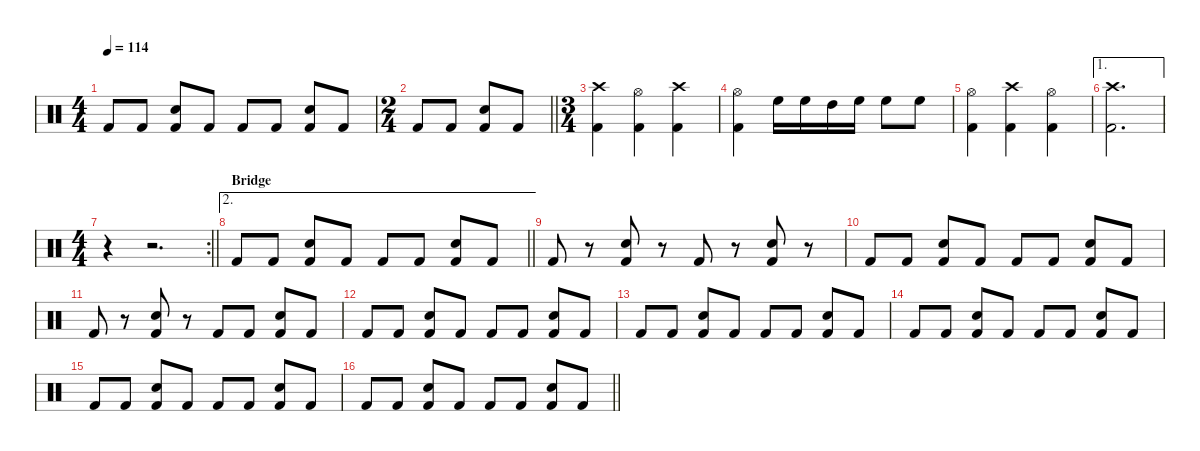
\defaultSystemsLayout 4
\hideDynamics
\bracketExtendMode nobrackets
\singleTrackTrackNamePolicy hidden
\multiTrackTrackNamePolicy hidden
\firstSystemTrackNameMode fullname
\firstSystemTrackNameOrientation horizontal
\otherSystemsTrackNameOrientation horizontal
\track ("Percussion-bu" "drm.") {mute instrument percussion}
\staff {score}
\articulation defaults
\ts (4 4)
\tempo 114
\clef neutral
\ks c "Kick (hit) 2".8{dy fff beam Up} "Kick (hit) 2".8{beam Up}
("Snare (hit) 2" "Kick (hit) 2").8{dy mf beam Up} "Kick (hit) 2".8{dy fff beam Up} "Kick (hit) 2".8{beam Up} "Kick (hit) 2".8{beam Up} ("Snare (hit) 2" "Kick (hit) 2").8{dy mf beam Up} "Kick (hit) 2".8{dy fff beam Up} |
\ts (2 4)
\beaming (8 2 2)
\barLineRight lightlight "Kick (hit) 2".8{beam Up} "Kick (hit) 2".8{beam Up}
("Snare (hit) 2" "Kick (hit) 2").8{dy mf beam Up} "Kick (hit) 2".8{dy fff beam Up} |
\ts (3 4)
\beaming (8 2 2 2)
("Crash high (hit)" "Kick (hit) 2").4{dy f beam Down} ("Hi-Hat (open)" "Kick (hit) 2").4{beam Down} ("Crash high (hit)" "Kick (hit) 2").4{beam Down} |
("Hi-Hat (open)" "Kick (hit) 2").4{beam Down} "High Floor Tom (hit)".16{dy mf beam Down} "High Floor Tom (hit)".16{beam Down} "High Tom (hit)".16{beam Down} "High Floor Tom (hit)".16{beam Down} "High Floor Tom (hit)".8{beam Down} "High Floor Tom (hit)".8{beam Down} |
("Hi-Hat (open)" "Kick (hit) 2").4{dy f beam Down} ("Crash high (hit)" "Kick (hit) 2").4{beam Down} ("Hi-Hat (open)" "Kick (hit) 2").4{beam Down} |
\ae 1
("Crash high (hit)" "Kick (hit) 2").2{d beam Down} |
\rc 2
\ts (4 4)
\beaming (8 2 2 2 2)
\barLineRight lightlight
r.4{beam Down} r.2{d beam Down} |
\ae 2
\section ("" "Bridge")
\barLineRight lightlight "Kick (hit) 2".8{dy fff beam Up} "Kick (hit) 2".8{beam Up}
("Snare (hit) 2" "Kick (hit) 2").8{dy mf beam Up} "Kick (hit) 2".8{dy fff beam Up} "Kick (hit) 2".8{beam Up} "Kick (hit) 2".8{beam Up} ("Snare (hit) 2" "Kick (hit) 2").8{dy mf beam Up} "Kick (hit) 2".8{dy fff beam Up} |
"Kick (hit) 2".8{beam Up} r.8{beam Up} ("Snare (hit) 2" "Kick (hit) 2").8{dy mf beam Up} r.8{beam Up} "Kick (hit) 2".8{dy fff beam Up} r.8{beam Up} ("Snare (hit) 2" "Kick (hit) 2").8{dy mf beam Up} r.8{beam Up} |
"Kick (hit) 2".8{dy fff beam Up} "Kick (hit) 2".8{dy mf beam Up} ("Snare (hit) 2" "Kick (hit) 2").8{beam Up} "Kick (hit) 2".8{beam Up} "Kick (hit) 2".8{dy fff beam Up} "Kick (hit) 2".8{dy mf beam Up} ("Snare (hit) 2" "Kick (hit) 2").8{beam Up} "Kick (hit) 2".8{beam Up} |
"Kick (hit) 2".8{dy fff beam Up} r.8{beam Up} ("Snare (hit) 2" "Kick (hit) 2").8{dy mf beam Up} r.8{beam Up} "Kick (hit) 2".8{dy fff beam Up} "Kick (hit) 2".8{beam Up} ("Snare (hit) 2" "Kick (hit) 2").8{dy mf beam Up} "Kick (hit) 2".8{dy fff beam Up} |
"Kick (hit) 2".8{beam Up} "Kick (hit) 2".8{dy mf beam Up} ("Snare (hit) 2" "Kick (hit) 2").8{beam Up} "Kick (hit) 2".8{dy fff beam Up} "Kick (hit) 2".8{beam Up} "Kick (hit) 2".8{beam Up} ("Snare (hit) 2" "Kick (hit) 2").8{dy mf beam Up} "Kick (hit) 2".8{dy fff beam Up} |
"Kick (hit) 2".8{beam Up} "Kick (hit) 2".8{beam Up} ("Snare (hit) 2" "Kick (hit) 2").8{dy mf beam Up} "Kick (hit) 2".8{dy fff beam Up} "Kick (hit) 2".8{beam Up} "Kick (hit) 2".8{beam Up} ("Snare (hit) 2" "Kick (hit) 2").8{dy mf beam Up} "Kick (hit) 2".8{dy fff beam Up} |
"Kick (hit) 2".8{beam Up} "Kick (hit) 2".8{beam Up} ("Snare (hit) 2" "Kick (hit) 2").8{dy mf beam Up} "Kick (hit) 2".8{dy fff beam Up} "Kick (hit) 2".8{beam Up} "Kick (hit) 2".8{beam Up} ("Snare (hit) 2" "Kick (hit) 2").8{dy mf beam Up} "Kick (hit) 2".8{dy fff beam Up} |
"Kick (hit) 2".8{beam Up} "Kick (hit) 2".8{beam Up} ("Snare (hit) 2" "Kick (hit) 2").8{dy mf beam Up} "Kick (hit) 2".8{dy fff beam Up} "Kick (hit) 2".8{beam Up} "Kick (hit) 2".8{beam Up} ("Snare (hit) 2" "Kick (hit) 2").8{dy mf beam Up} "Kick (hit) 2".8{dy fff beam Up} |
\barLineRight lightlight "Kick (hit) 2".8{beam Up} "Kick (hit) 2".8{beam Up}
("Snare (hit) 2" "Kick (hit) 2").8{dy mf beam Up} "Kick (hit) 2".8{dy fff beam Up} "Kick (hit) 2".8{beam Up} "Kick (hit) 2".8{beam Up} ("Snare (hit) 2" "Kick (hit) 2").8{dy mf beam Up} "Kick (hit) 2".8{dy fff beam Up}
